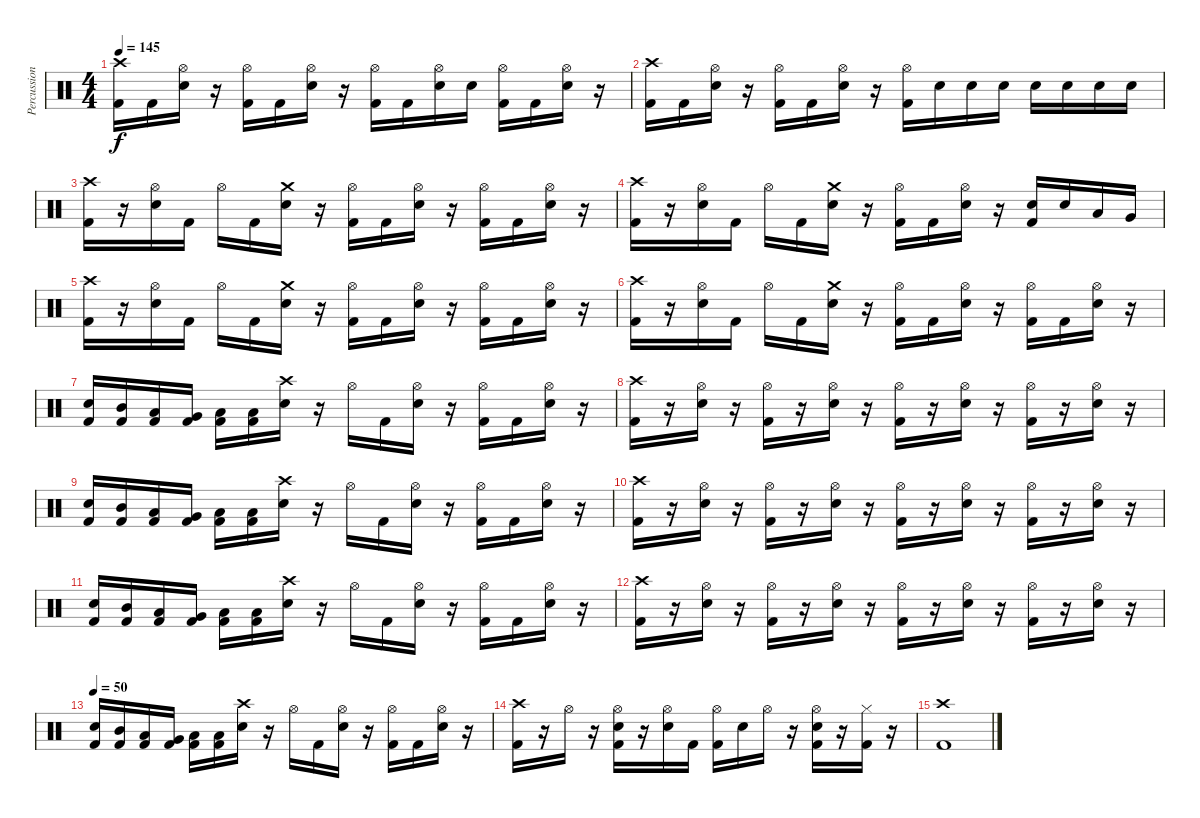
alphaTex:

\track ("Percussion - pinch" "Percussion") {instrument percussion}
\staff
\articulation defaults
\ts (4 4)
\tempo 145
\clef neutral
\ks c
("Crash high (hit)" "Kick (hit) 2").16{dy f} "Kick (hit) 2".16 ("Hi-Hat (open)" "Electric Snare (hit)").16 r.16 ("Hi-Hat (open)" "Kick (hit) 2").16 "Kick (hit) 2".16 ("Hi-Hat (open)" "Electric Snare (hit)").16 r.16 ("Hi-Hat (open)" "Kick (hit) 2").16 "Kick (hit) 2".16 ("Hi-Hat (open)" "Electric Snare (hit)").16 "Electric Snare (hit)".16 ("Hi-Hat (open)" "Kick (hit) 2").16 "Kick (hit) 2".16 ("Hi-Hat (open)" "Electric Snare (hit)").16 r.16 |
("Crash high (hit)" "Kick (hit) 2").16 "Kick (hit) 2".16 ("Hi-Hat (open)" "Electric Snare (hit)").16 r.16 ("Hi-Hat (open)" "Kick (hit) 2").16 "Kick (hit) 2".16 ("Hi-Hat (open)" "Electric Snare (hit)").16 r.16 ("Hi-Hat (open)" "Kick (hit) 2").16 "Electric Snare (hit)".16 "Electric Snare (hit)".16 "Electric Snare (hit)".16 "Electric Snare (hit)".16 "Electric Snare (hit)".16 "Electric Snare (hit)".16 "Electric Snare (hit)".16 |
("Crash high (hit)" "Kick (hit) 2").16 r.16 ("Hi-Hat (open)" "Electric Snare (hit)").16 "Kick (hit) 2".16 "Hi-Hat (open)".16 "Kick (hit) 2".16 ("Crash medium (hit)" "Electric Snare (hit)").16 r.16 ("Hi-Hat (open)" "Kick (hit) 2").16 "Kick (hit) 2".16 ("Hi-Hat (open)" "Electric Snare (hit)").16 r.16 ("Hi-Hat (open)" "Kick (hit) 2").16 "Kick (hit) 2".16 ("Hi-Hat (open)" "Electric Snare (hit)").16 r.16 |
("Crash high (hit)" "Kick (hit) 2").16 r.16 ("Hi-Hat (open)" "Electric Snare (hit)").16 "Kick (hit) 2".16 "Hi-Hat (open)".16 "Kick (hit) 2".16 ("Crash medium (hit)" "Electric Snare (hit)").16 r.16 ("Hi-Hat (open)" "Kick (hit) 2").16 "Kick (hit) 2".16 ("Hi-Hat (open)" "Electric Snare (hit)").16 r.16 ("Electric Snare (hit)" "Kick (hit) 2").16 "Electric Snare (hit)".16 "Low Tom (hit)".16 "Very Low Tom (hit)".16 |
("Crash high (hit)" "Kick (hit) 2").16 r.16 ("Hi-Hat (open)" "Electric Snare (hit)").16 "Kick (hit) 2".16 "Hi-Hat (open)".16 "Kick (hit) 2".16 ("Crash medium (hit)" "Electric Snare (hit)").16 r.16 ("Hi-Hat (open)" "Kick (hit) 2").16 "Kick (hit) 2".16 ("Hi-Hat (open)" "Electric Snare (hit)").16 r.16 ("Hi-Hat (open)" "Kick (hit) 2").16 "Kick (hit) 2".16 ("Hi-Hat (open)" "Electric Snare (hit)").16 r.16 |
("Crash high (hit)" "Kick (hit) 2").16 r.16 ("Hi-Hat (open)" "Electric Snare (hit)").16 "Kick (hit) 2".16 "Hi-Hat (open)".16 "Kick (hit) 2".16 ("Crash medium (hit)" "Electric Snare (hit)").16 r.16 ("Hi-Hat (open)" "Kick (hit) 2").16 "Kick (hit) 2".16 ("Hi-Hat (open)" "Electric Snare (hit)").16 r.16 ("Hi-Hat (open)" "Kick (hit) 2").16 "Kick (hit) 2".16 ("Hi-Hat (open)" "Electric Snare (hit)").16 r.16 |
("Electric Snare (hit)" "Kick (hit) 2").16 ("Mid Tom (hit)" "Kick (hit) 2").16 ("Low Tom (hit)" "Kick (hit) 2").16 ("Very Low Tom (hit)" "Kick (hit) 2").16 ("Low Floor Tom (hit)" "Kick (hit) 2").16 ("Low Floor Tom (hit)" "Kick (hit) 2").16 ("Crash high (hit)" "Electric Snare (hit)").16 r.16 "Hi-Hat (open)".16 "Kick (hit) 2".16 ("Hi-Hat (open)" "Electric Snare (hit)").16 r.16 ("Hi-Hat (open)" "Kick (hit) 2").16 "Kick (hit) 2".16 ("Hi-Hat (open)" "Electric Snare (hit)").16 r.16 |
("Crash high (hit)" "Kick (hit) 2").16 r.16 ("Hi-Hat (open)" "Electric Snare (hit)").16 r.16 ("Hi-Hat (open)" "Kick (hit) 2").16 r.16 ("Hi-Hat (open)" "Electric Snare (hit)").16 r.16 ("Hi-Hat (open)" "Kick (hit) 2").16 r.16 ("Hi-Hat (open)" "Electric Snare (hit)").16 r.16 ("Hi-Hat (open)" "Kick (hit) 2").16 r.16 ("Hi-Hat (open)" "Electric Snare (hit)").16 r.16 |
("Electric Snare (hit)" "Kick (hit) 2").16 ("Mid Tom (hit)" "Kick (hit) 2").16 ("Low Tom (hit)" "Kick (hit) 2").16 ("Very Low Tom (hit)" "Kick (hit) 2").16 ("Low Floor Tom (hit)" "Kick (hit) 2").16 ("Low Floor Tom (hit)" "Kick (hit) 2").16 ("Crash high (hit)" "Electric Snare (hit)").16 r.16 "Hi-Hat (open)".16 "Kick (hit) 2".16 ("Hi-Hat (open)" "Electric Snare (hit)").16 r.16 ("Hi-Hat (open)" "Kick (hit) 2").16 "Kick (hit) 2".16 ("Hi-Hat (open)" "Electric Snare (hit)").16 r.16 |
("Crash high (hit)" "Kick (hit) 2").16 r.16 ("Hi-Hat (open)" "Electric Snare (hit)").16 r.16 ("Hi-Hat (open)" "Kick (hit) 2").16 r.16 ("Hi-Hat (open)" "Electric Snare (hit)").16 r.16 ("Hi-Hat (open)" "Kick (hit) 2").16 r.16 ("Hi-Hat (open)" "Electric Snare (hit)").16 r.16 ("Hi-Hat (open)" "Kick (hit) 2").16 r.16 ("Hi-Hat (open)" "Electric Snare (hit)").16 r.16 |
("Electric Snare (hit)" "Kick (hit) 2").16 ("Mid Tom (hit)" "Kick (hit) 2").16 ("Low Tom (hit)" "Kick (hit) 2").16 ("Very Low Tom (hit)" "Kick (hit) 2").16 ("Low Floor Tom (hit)" "Kick (hit) 2").16 ("Low Floor Tom (hit)" "Kick (hit) 2").16 ("Crash high (hit)" "Electric Snare (hit)").16 r.16 "Hi-Hat (open)".16 "Kick (hit) 2".16 ("Hi-Hat (open)" "Electric Snare (hit)").16 r.16 ("Hi-Hat (open)" "Kick (hit) 2").16 "Kick (hit) 2".16 ("Hi-Hat (open)" "Electric Snare (hit)").16 r.16 |
("Crash high (hit)" "Kick (hit) 2").16 r.16 ("Hi-Hat (open)" "Electric Snare (hit)").16 r.16 ("Hi-Hat (open)" "Kick (hit) 2").16 r.16 ("Hi-Hat (open)" "Electric Snare (hit)").16 r.16 ("Hi-Hat (open)" "Kick (hit) 2").16 r.16 ("Hi-Hat (open)" "Electric Snare (hit)").16 r.16 ("Hi-Hat (open)" "Kick (hit) 2").16 r.16 ("Hi-Hat (open)" "Electric Snare (hit)").16 r.16 |
\tempo 50
("Electric Snare (hit)" "Kick (hit) 2").16 ("Mid Tom (hit)" "Kick (hit) 2").16 ("Low Tom (hit)" "Kick (hit) 2").16 ("Very Low Tom (hit)" "Kick (hit) 2").16 ("Low Floor Tom (hit)" "Kick (hit) 2").16 ("Low Floor Tom (hit)" "Kick (hit) 2").16 ("Crash high (hit)" "Electric Snare (hit)").16 r.16 "Hi-Hat (open)".16 "Kick (hit) 2".16 ("Hi-Hat (open)" "Electric Snare (hit)").16 r.16 ("Hi-Hat (open)" "Kick (hit) 2").16 "Kick (hit) 2".16 ("Hi-Hat (open)" "Electric Snare (hit)").16 r.16 |
("Crash high (hit)" "Kick (hit) 2").16 r.16 "Hi-Hat (open)".16 r.16 ("Hi-Hat (open)" "Electric Snare (hit)" "Kick (hit) 2").16 r.16 ("Hi-Hat (open)" "Electric Snare (hit)").16 "Kick (hit) 2".16 ("Hi-Hat (open)" "Kick (hit) 2").16 "Electric Snare (hit)".16 "Hi-Hat (open)".16 r.16 ("Hi-Hat (open)" "Electric Snare (hit)" "Kick (hit) 2").16 r.16 ("Hi-Hat (closed)" "Kick (hit) 2").16 r.16 |
("Crash high (hit)" "Kick (hit) 2").1
